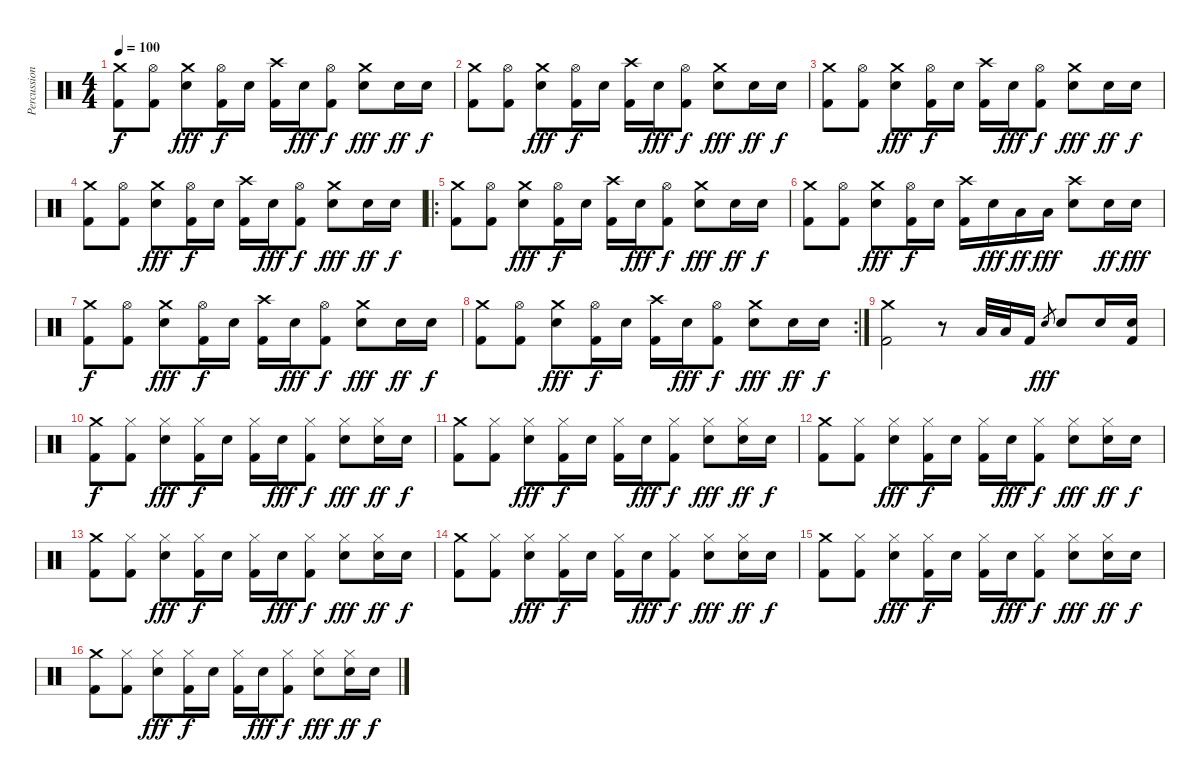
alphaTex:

\track ("Percussion" "Percussion") {instrument percussion}
\staff {score}
\articulation defaults
\ts (4 4)
\tempo 100
\clef neutral
\ks c
("Crash medium (hit)" "Kick (hit) 2").8{dy f} ("Hi-Hat (open)" "Kick (hit) 2").8 ("Crash medium (hit)" "Electric Snare (hit)").8{dy fff} ("Hi-Hat (open)" "Kick (hit) 2").16{dy f} "Electric Snare (hit)".16 ("Crash high (hit)" "Kick (hit) 2").16 "Electric Snare (hit)".16{dy fff} ("Hi-Hat (open)" "Kick (hit) 2").8{dy f} ("Crash medium (hit)" "Electric Snare (hit)").8{dy fff} "Electric Snare (hit)".16{dy ff} "Electric Snare (hit)".16{dy f} |
("Crash medium (hit)" "Kick (hit) 2").8 ("Hi-Hat (open)" "Kick (hit) 2").8 ("Crash medium (hit)" "Electric Snare (hit)").8{dy fff} ("Hi-Hat (open)" "Kick (hit) 2").16{dy f} "Electric Snare (hit)".16 ("Crash high (hit)" "Kick (hit) 2").16 "Electric Snare (hit)".16{dy fff} ("Hi-Hat (open)" "Kick (hit) 2").8{dy f} ("Crash medium (hit)" "Electric Snare (hit)").8{dy fff} "Electric Snare (hit)".16{dy ff} "Electric Snare (hit)".16{dy f} |
("Crash medium (hit)" "Kick (hit) 2").8 ("Hi-Hat (open)" "Kick (hit) 2").8 ("Crash medium (hit)" "Electric Snare (hit)").8{dy fff} ("Hi-Hat (open)" "Kick (hit) 2").16{dy f} "Electric Snare (hit)".16 ("Crash high (hit)" "Kick (hit) 2").16 "Electric Snare (hit)".16{dy fff} ("Hi-Hat (open)" "Kick (hit) 2").8{dy f} ("Crash medium (hit)" "Electric Snare (hit)").8{dy fff} "Electric Snare (hit)".16{dy ff} "Electric Snare (hit)".16{dy f} |
("Crash medium (hit)" "Kick (hit) 2").8 ("Hi-Hat (open)" "Kick (hit) 2").8 ("Crash medium (hit)" "Electric Snare (hit)").8{dy fff} ("Hi-Hat (open)" "Kick (hit) 2").16{dy f} "Electric Snare (hit)".16 ("Crash high (hit)" "Kick (hit) 2").16 "Electric Snare (hit)".16{dy fff} ("Hi-Hat (open)" "Kick (hit) 2").8{dy f} ("Crash medium (hit)" "Electric Snare (hit)").8{dy fff} "Electric Snare (hit)".16{dy ff} "Electric Snare (hit)".16{dy f} |
\ro
("Crash medium (hit)" "Kick (hit) 2").8 ("Hi-Hat (open)" "Kick (hit) 2").8 ("Crash medium (hit)" "Electric Snare (hit)").8{dy fff} ("Hi-Hat (open)" "Kick (hit) 2").16{dy f} "Electric Snare (hit)".16 ("Crash high (hit)" "Kick (hit) 2").16 "Electric Snare (hit)".16{dy fff} ("Hi-Hat (open)" "Kick (hit) 2").8{dy f} ("Crash medium (hit)" "Electric Snare (hit)").8{dy fff} "Electric Snare (hit)".16{dy ff} "Electric Snare (hit)".16{dy f} |
("Crash medium (hit)" "Kick (hit) 2").8 ("Hi-Hat (open)" "Kick (hit) 2").8 ("Crash medium (hit)" "Electric Snare (hit)").8{dy fff} ("Hi-Hat (open)" "Kick (hit) 2").16{dy f} "Electric Snare (hit)".16 ("Crash high (hit)" "Kick (hit) 2").16 "Electric Snare (hit)".16{dy fff} "Low Floor Tom (hit)".16{dy ff} "Low Floor Tom (hit)".16{dy fff} ("Crash high (hit)" "Electric Snare (hit)").8 "Electric Snare (hit)".16{dy ff} "Electric Snare (hit)".16{dy fff} |
("Crash medium (hit)" "Kick (hit) 2").8{dy f} ("Hi-Hat (open)" "Kick (hit) 2").8 ("Crash medium (hit)" "Electric Snare (hit)").8{dy fff} ("Hi-Hat (open)" "Kick (hit) 2").16{dy f} "Electric Snare (hit)".16 ("Crash high (hit)" "Kick (hit) 2").16 "Electric Snare (hit)".16{dy fff} ("Hi-Hat (open)" "Kick (hit) 2").8{dy f} ("Crash medium (hit)" "Electric Snare (hit)").8{dy fff} "Electric Snare (hit)".16{dy ff} "Electric Snare (hit)".16{dy f} |
\rc 2
("Crash medium (hit)" "Kick (hit) 2").8 ("Hi-Hat (open)" "Kick (hit) 2").8 ("Crash medium (hit)" "Electric Snare (hit)").8{dy fff} ("Hi-Hat (open)" "Kick (hit) 2").16{dy f} "Electric Snare (hit)".16 ("Crash high (hit)" "Kick (hit) 2").16 "Electric Snare (hit)".16{dy fff} ("Hi-Hat (open)" "Kick (hit) 2").8{dy f} ("Crash medium (hit)" "Electric Snare (hit)").8{dy fff} "Electric Snare (hit)".16{dy ff} "Electric Snare (hit)".16{dy f} |
("Crash medium (hit)" "Kick (hit) 2").2 r.8 "Low Floor Tom (hit)".32 "Low Floor Tom (hit)".32 "Kick (hit) 2".16 "Electric Snare (hit)".8{gr dy fff} "Electric Snare (hit)".8 "Electric Snare (hit)".16 ("Electric Snare (hit)" "Kick (hit) 2").16 |
("Crash medium (hit)" "Kick (hit) 2").8{dy f} ("Hi-Hat (closed)" "Kick (hit) 2").8 ("Hi-Hat (closed)" "Electric Snare (hit)").8{dy fff} ("Hi-Hat (closed)" "Kick (hit) 2").16{dy f} "Electric Snare (hit)".16 ("Hi-Hat (closed)" "Kick (hit) 2").16 "Electric Snare (hit)".16{dy fff} ("Hi-Hat (closed)" "Kick (hit) 2").8{dy f} ("Hi-Hat (closed)" "Electric Snare (hit)").8{dy fff} ("Hi-Hat (closed)" "Electric Snare (hit)").16{dy ff} "Electric Snare (hit)".16{dy f} |
("Crash medium (hit)" "Kick (hit) 2").8 ("Hi-Hat (closed)" "Kick (hit) 2").8 ("Hi-Hat (closed)" "Electric Snare (hit)").8{dy fff} ("Hi-Hat (closed)" "Kick (hit) 2").16{dy f} "Electric Snare (hit)".16 ("Hi-Hat (closed)" "Kick (hit) 2").16 "Electric Snare (hit)".16{dy fff} ("Hi-Hat (closed)" "Kick (hit) 2").8{dy f} ("Hi-Hat (closed)" "Electric Snare (hit)").8{dy fff} ("Hi-Hat (closed)" "Electric Snare (hit)").16{dy ff} "Electric Snare (hit)".16{dy f} |
("Crash medium (hit)" "Kick (hit) 2").8 ("Hi-Hat (closed)" "Kick (hit) 2").8 ("Hi-Hat (closed)" "Electric Snare (hit)").8{dy fff} ("Hi-Hat (closed)" "Kick (hit) 2").16{dy f} "Electric Snare (hit)".16 ("Hi-Hat (closed)" "Kick (hit) 2").16 "Electric Snare (hit)".16{dy fff} ("Hi-Hat (closed)" "Kick (hit) 2").8{dy f} ("Hi-Hat (closed)" "Electric Snare (hit)").8{dy fff} ("Hi-Hat (closed)" "Electric Snare (hit)").16{dy ff} "Electric Snare (hit)".16{dy f} |
("Crash medium (hit)" "Kick (hit) 2").8 ("Hi-Hat (closed)" "Kick (hit) 2").8 ("Hi-Hat (closed)" "Electric Snare (hit)").8{dy fff} ("Hi-Hat (closed)" "Kick (hit) 2").16{dy f} "Electric Snare (hit)".16 ("Hi-Hat (closed)" "Kick (hit) 2").16 "Electric Snare (hit)".16{dy fff} ("Hi-Hat (closed)" "Kick (hit) 2").8{dy f} ("Hi-Hat (closed)" "Electric Snare (hit)").8{dy fff} ("Hi-Hat (closed)" "Electric Snare (hit)").16{dy ff} "Electric Snare (hit)".16{dy f} |
("Crash medium (hit)" "Kick (hit) 2").8 ("Hi-Hat (closed)" "Kick (hit) 2").8 ("Hi-Hat (closed)" "Electric Snare (hit)").8{dy fff} ("Hi-Hat (closed)" "Kick (hit) 2").16{dy f} "Electric Snare (hit)".16 ("Hi-Hat (closed)" "Kick (hit) 2").16 "Electric Snare (hit)".16{dy fff} ("Hi-Hat (closed)" "Kick (hit) 2").8{dy f} ("Hi-Hat (closed)" "Electric Snare (hit)").8{dy fff} ("Hi-Hat (closed)" "Electric Snare (hit)").16{dy ff} "Electric Snare (hit)".16{dy f} |
("Crash medium (hit)" "Kick (hit) 2").8 ("Hi-Hat (closed)" "Kick (hit) 2").8 ("Hi-Hat (closed)" "Electric Snare (hit)").8{dy fff} ("Hi-Hat (closed)" "Kick (hit) 2").16{dy f} "Electric Snare (hit)".16 ("Hi-Hat (closed)" "Kick (hit) 2").16 "Electric Snare (hit)".16{dy fff} ("Hi-Hat (closed)" "Kick (hit) 2").8{dy f} ("Hi-Hat (closed)" "Electric Snare (hit)").8{dy fff} ("Hi-Hat (closed)" "Electric Snare (hit)").16{dy ff} "Electric Snare (hit)".16{dy f} |
("Crash medium (hit)" "Kick (hit) 2").8 ("Hi-Hat (closed)" "Kick (hit) 2").8 ("Hi-Hat (closed)" "Electric Snare (hit)").8{dy fff} ("Hi-Hat (closed)" "Kick (hit) 2").16{dy f} "Electric Snare (hit)".16 ("Hi-Hat (closed)" "Kick (hit) 2").16 "Electric Snare (hit)".16{dy fff} ("Hi-Hat (closed)" "Kick (hit) 2").8{dy f} ("Hi-Hat (closed)" "Electric Snare (hit)").8{dy fff} ("Hi-Hat (closed)" "Electric Snare (hit)").16{dy ff} "Electric Snare (hit)".16{dy f}
